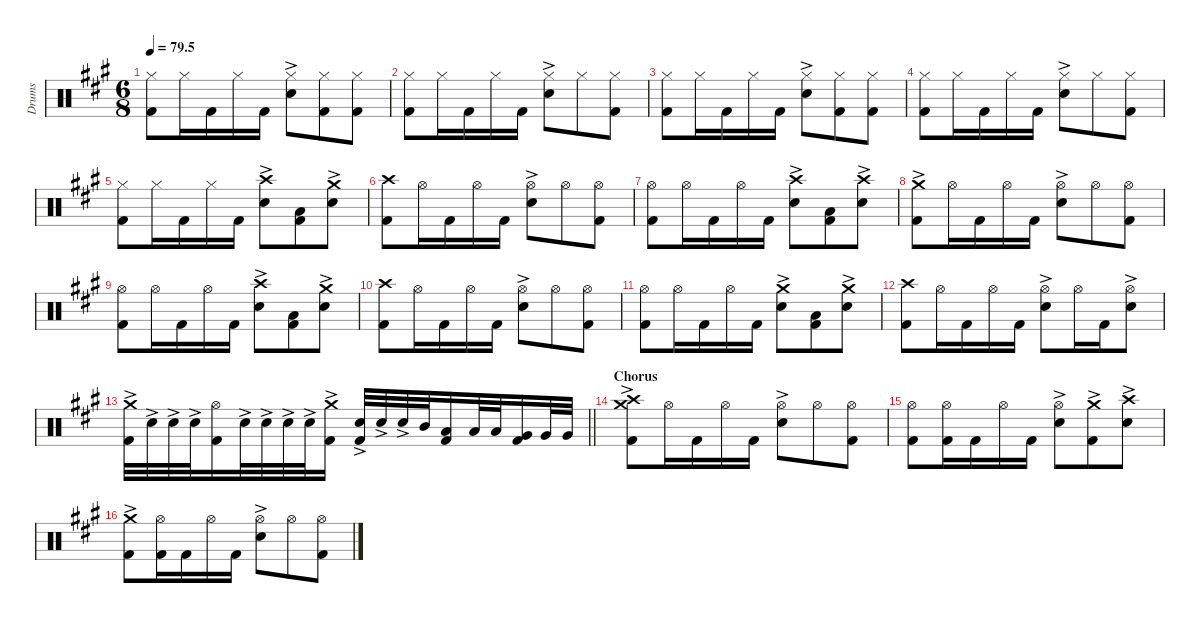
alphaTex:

\defaultSystemsLayout 4
\hideDynamics
\bracketExtendMode nobrackets
\otherSystemsTrackNameOrientation horizontal
\track ("Drumkit-show" "Drums") {mute instrument percussion}
\staff {score}
\articulation defaults
\ts (6 8)
\tempo
79.5
\accidentals auto
\clef neutral
\ottava regular
\simile none
\scale
0.333333
\ks a
("Hi-Hat (closed)"{acc forcenatural} "Kick (hit) 2"{acc forcenatural}).8{dy f beam Down} "Hi-Hat (closed)"{acc forcenatural}.16{beam Down} "Kick (hit) 2"{acc forcenatural}.16{beam Down} "Hi-Hat (closed)"{acc forcenatural}.16{beam Down} "Kick (hit) 2"{acc forcenatural}.16{beam Down} ("Hi-Hat (closed)"{acc forcenatural} "Snare (hit) 2"{ac acc forcenatural}).8{beam Down} ("Hi-Hat (closed)"{acc forcenatural} "Kick (hit) 2"{acc forcenatural}).8{beam Down} ("Hi-Hat (closed)"{acc forcenatural} "Kick (hit) 2"{acc forcenatural}).8{beam Down} |
\scale
0.333333 ("Kick (hit) 2"{acc forcenatural} "Hi-Hat (closed)"{acc forcenatural}).8{beam Down} "Hi-Hat (closed)"{acc forcenatural}.16{beam Down} "Kick (hit) 2"{acc forcenatural}.16{beam Down} "Hi-Hat (closed)"{acc forcenatural}.16{beam Down} "Kick (hit) 2"{acc forcenatural}.16{beam Down} ("Hi-Hat (closed)"{acc forcenatural} "Snare (hit) 2"{ac acc forcenatural}).8{beam Down} "Hi-Hat (closed)"{acc forcenatural}.8{beam Down} ("Hi-Hat (closed)"{acc forcenatural} "Kick (hit) 2"{acc forcenatural}).8{beam Down} |
\scale
0.333333 ("Hi-Hat (closed)"{acc forcenatural} "Kick (hit) 2"{acc forcenatural}).8{beam Down} "Hi-Hat (closed)"{acc forcenatural}.16{beam Down} "Kick (hit) 2"{acc forcenatural}.16{beam Down} "Hi-Hat (closed)"{acc forcenatural}.16{beam Down} "Kick (hit) 2"{acc forcenatural}.16{beam Down} ("Hi-Hat (closed)"{acc forcenatural} "Snare (hit) 2"{ac acc forcenatural}).8{beam Down} ("Hi-Hat (closed)"{acc forcenatural} "Kick (hit) 2"{acc forcenatural}).8{beam Down} ("Hi-Hat (closed)"{acc forcenatural} "Kick (hit) 2"{acc forcenatural}).8{beam Down} |
\scale
0.333333 ("Kick (hit) 2"{acc forcenatural} "Hi-Hat (closed)"{acc forcenatural}).8{beam Down} "Hi-Hat (closed)"{acc forcenatural}.16{beam Down} "Kick (hit) 2"{acc forcenatural}.16{beam Down} "Hi-Hat (closed)"{acc forcenatural}.16{beam Down} "Kick (hit) 2"{acc forcenatural}.16{beam Down} ("Hi-Hat (closed)"{acc forcenatural} "Snare (hit) 2"{ac acc forcenatural}).8{beam Down} "Hi-Hat (closed)"{acc forcenatural}.8{beam Down} ("Hi-Hat (closed)"{acc forcenatural} "Kick (hit) 2"{acc forcenatural}).8{beam Down} |
\scale
0.333333 ("Kick (hit) 2"{acc forcenatural} "Hi-Hat (closed)"{acc forcenatural}).8{beam Down} "Hi-Hat (closed)"{acc forcenatural}.16{beam Down} "Kick (hit) 2"{acc forcenatural}.16{beam Down} "Hi-Hat (closed)"{acc forcenatural}.16{beam Down} "Kick (hit) 2"{acc forcenatural}.16{beam Down} ("Snare (hit) 2"{ac acc forcenatural} "Crash high (hit)"{acc forcenatural}).8{beam Down} ("Low Tom (hit)"{acc forcenatural} "Kick (hit) 2"{acc forcenatural}).8{beam Down} ("Snare (hit) 2"{ac acc forcenatural} "Crash medium (hit)"{ac acc forcenatural}).8{beam Down} |
\scale
0.333333 ("Crash high (hit)"{acc forcenatural} "Kick (hit) 2"{acc forcenatural}).8{beam Down} "Hi-Hat (open)"{acc forcenatural}.16{beam Down} "Kick (hit) 2"{acc forcenatural}.16{beam Down} "Hi-Hat (open)"{acc forcenatural}.16{beam Down} "Kick (hit) 2"{acc forcenatural}.16{beam Down} ("Hi-Hat (open)"{acc forcenatural} "Snare (hit) 2"{ac acc forcenatural}).8{beam Down} "Hi-Hat (open)"{acc forcenatural}.8{beam Down} ("Hi-Hat (open)"{acc forcenatural} "Kick (hit) 2"{acc forcenatural}).8{beam Down} |
\scale
0.333333 ("Hi-Hat (open)"{acc forcenatural} "Kick (hit) 2"{acc forcenatural}).8{beam Down} "Hi-Hat (open)"{acc forcenatural}.16{beam Down} "Kick (hit) 2"{acc forcenatural}.16{beam Down} "Hi-Hat (open)"{acc forcenatural}.16{beam Down} "Kick (hit) 2"{acc forcenatural}.16{beam Down} ("Snare (hit) 2"{ac acc forcenatural} "Crash high (hit)"{acc forcenatural}).8{beam Down} ("Low Tom (hit)"{acc forcenatural} "Kick (hit) 2"{acc forcenatural}).8{beam Down} ("Snare (hit) 2"{ac acc forcenatural} "Crash high (hit)"{acc forcenatural}).8{beam Down} |
\scale
0.333333 ("Crash medium (hit)"{ac acc forcenatural} "Kick (hit) 2"{acc forcenatural}).8{beam Down} "Hi-Hat (open)"{acc forcenatural}.16{beam Down} "Kick (hit) 2"{acc forcenatural}.16{beam Down} "Hi-Hat (open)"{acc forcenatural}.16{beam Down} "Kick (hit) 2"{acc forcenatural}.16{beam Down} ("Hi-Hat (open)"{acc forcenatural} "Snare (hit) 2"{ac acc forcenatural}).8{beam Down} "Hi-Hat (open)"{acc forcenatural}.8{beam Down} ("Hi-Hat (open)"{acc forcenatural} "Kick (hit) 2"{acc forcenatural}).8{beam Down} |
\scale
0.333333 ("Hi-Hat (open)"{acc forcenatural} "Kick (hit) 2"{acc forcenatural}).8{beam Down} "Hi-Hat (open)"{acc forcenatural}.16{beam Down} "Kick (hit) 2"{acc forcenatural}.16{beam Down} "Hi-Hat (open)"{acc forcenatural}.16{beam Down} "Kick (hit) 2"{acc forcenatural}.16{beam Down} ("Snare (hit) 2"{ac acc forcenatural} "Crash high (hit)"{acc forcenatural}).8{beam Down} ("Low Tom (hit)"{acc forcenatural} "Kick (hit) 2"{acc forcenatural}).8{beam Down} ("Crash medium (hit)"{ac acc forcenatural} "Snare (hit) 2"{ac acc forcenatural}).8{beam Down} |
\scale
0.333333 ("Crash high (hit)"{acc forcenatural} "Kick (hit) 2"{acc forcenatural}).8{beam Down} "Hi-Hat (open)"{acc forcenatural}.16{beam Down} "Kick (hit) 2"{acc forcenatural}.16{beam Down} "Hi-Hat (open)"{acc forcenatural}.16{beam Down} "Kick (hit) 2"{acc forcenatural}.16{beam Down} ("Hi-Hat (open)"{acc forcenatural} "Snare (hit) 2"{ac acc forcenatural}).8{beam Down} "Hi-Hat (open)"{acc forcenatural}.8{beam Down} ("Hi-Hat (open)"{acc forcenatural} "Kick (hit) 2"{acc forcenatural}).8{beam Down} |
\scale
0.333333 ("Hi-Hat (open)"{acc forcenatural} "Kick (hit) 2"{acc forcenatural}).8{beam Down} "Hi-Hat (open)"{acc forcenatural}.16{beam Down} "Kick (hit) 2"{acc forcenatural}.16{beam Down} "Hi-Hat (open)"{acc forcenatural}.16{beam Down} "Kick (hit) 2"{acc forcenatural}.16{beam Down} ("Crash medium (hit)"{ac acc forcenatural} "Snare (hit) 2"{ac acc forcenatural}).8{beam Down} ("Low Tom (hit)"{acc forcenatural} "Kick (hit) 2"{acc forcenatural}).8{beam Down} ("Crash medium (hit)"{ac acc forcenatural} "Snare (hit) 2"{ac acc forcenatural}).8{beam Down} |
\scale
0.475597 ("Crash high (hit)"{acc forcenatural} "Kick (hit) 2"{acc forcenatural}).8{beam Down} "Hi-Hat (open)"{acc forcenatural}.16{beam Down} "Kick (hit) 2"{acc forcenatural}.16{beam Down} "Hi-Hat (open)"{acc forcenatural}.16{beam Down} "Kick (hit) 2"{acc forcenatural}.16{beam Down} ("Hi-Hat (open)"{acc forcenatural} "Snare (hit) 2"{ac acc forcenatural}).8{beam Down} "Hi-Hat (open)"{acc forcenatural}.16{beam Down} "Kick (hit) 2"{acc forcenatural}.16{beam Down} ("Hi-Hat (open)"{acc forcenatural} "Snare (hit) 2"{ac acc forcenatural}).8{beam Down} |
\scale
0.524521
\barLineRight lightlight
("Crash medium (hit)"{ac acc forcenatural} "Kick (hit) 2"{acc forcenatural}).32{beam Down} "Snare (hit) 2"{ac acc forcenatural}.32{beam Down} "Snare (hit) 2"{ac acc forcenatural}.32{beam Down} "Snare (hit) 2"{ac acc forcenatural}.32{beam Down} ("Hi-Hat (open)"{acc forcenatural} "Kick (hit) 2"{acc forcenatural}).16{beam Down} "Snare (hit) 2"{ac acc forcenatural}.32{beam Down} "Snare (hit) 2"{ac acc forcenatural}.32{beam Down} "Snare (hit) 2"{ac acc forcenatural}.32{beam Down} "Snare (hit) 2"{ac acc forcenatural}.32{beam Down} ("Crash medium (hit)"{ac acc forcenatural} "Kick (hit) 2"{acc forcenatural}).16{beam Down} ("Snare (hit) 2"{ac acc forcenatural} "Kick (hit) 2"{acc forcenatural}).32{beam Up} "Snare (hit) 2"{ac acc forcenatural}.32{beam Up} "Snare (hit) 2"{ac acc forcenatural}.32{beam Up} "Mid Tom (hit)"{acc forcenatural}.32{beam Up} ("Low Tom (hit)"{acc forcenatural} "Kick (hit) 2"{acc forcenatural}).16{beam Up} "Low Tom (hit)"{acc forcenatural}.32{beam Up} "Low Tom (hit)"{acc forcenatural}.32{beam Up} ("Very Low Tom (hit)"{acc forcenatural} "Kick (hit) 2"{acc forcenatural}).16{beam Up} "Very Low Tom (hit)"{acc forcenatural}.32{beam Up} "Very Low Tom (hit)"{acc forcenatural}.32{beam Up} |
\section ("" "Chorus")
("Crash medium (hit)"{ac acc forcenatural} "Crash high (hit)"{acc forcenatural} "Kick (hit) 2"{acc forcenatural}).8{beam Down} "Hi-Hat (open)"{acc forcenatural}.16{beam Down} "Kick (hit) 2"{acc forcenatural}.16{beam Down} "Hi-Hat (open)"{acc forcenatural}.16{beam Down} "Kick (hit) 2"{acc forcenatural}.16{beam Down} ("Hi-Hat (open)"{acc forcenatural} "Snare (hit) 2"{ac acc forcenatural}).8{beam Down} "Hi-Hat (open)"{acc forcenatural}.8{beam Down} ("Hi-Hat (open)"{acc forcenatural} "Kick (hit) 2"{acc forcenatural}).8{beam Down} |
("Hi-Hat (open)"{acc forcenatural} "Kick (hit) 2"{acc forcenatural}).8{beam Down} ("Hi-Hat (open)"{acc forcenatural} "Kick (hit) 2"{acc forcenatural}).16{beam Down} "Kick (hit) 2"{acc forcenatural}.16{beam Down} "Hi-Hat (open)"{acc forcenatural}.16{beam Down} "Kick (hit) 2"{acc forcenatural}.16{beam Down} ("Snare (hit) 2"{ac acc forcenatural} "Hi-Hat (open)"{acc forcenatural}).8{beam Down} ("Kick (hit) 2"{acc forcenatural} "Crash medium (hit)"{ac acc forcenatural}).8{beam Down} ("Snare (hit) 2"{ac acc forcenatural} "Crash high (hit)"{acc forcenatural}).8{beam Down} |
("Crash medium (hit)"{ac acc forcenatural} "Kick (hit) 2"{acc forcenatural}).8{beam Down} ("Hi-Hat (open)"{acc forcenatural} "Kick (hit) 2"{acc forcenatural}).16{beam Down} "Kick (hit) 2"{acc forcenatural}.16{beam Down} "Hi-Hat (open)"{acc forcenatural}.16{beam Down} "Kick (hit) 2"{acc forcenatural}.16{beam Down} ("Hi-Hat (open)"{acc forcenatural} "Snare (hit) 2"{ac acc forcenatural}).8{beam Down} "Hi-Hat (open)"{acc forcenatural}.8{beam Down} ("Hi-Hat (open)"{acc forcenatural} "Kick (hit) 2"{acc forcenatural}).8{beam Down}
